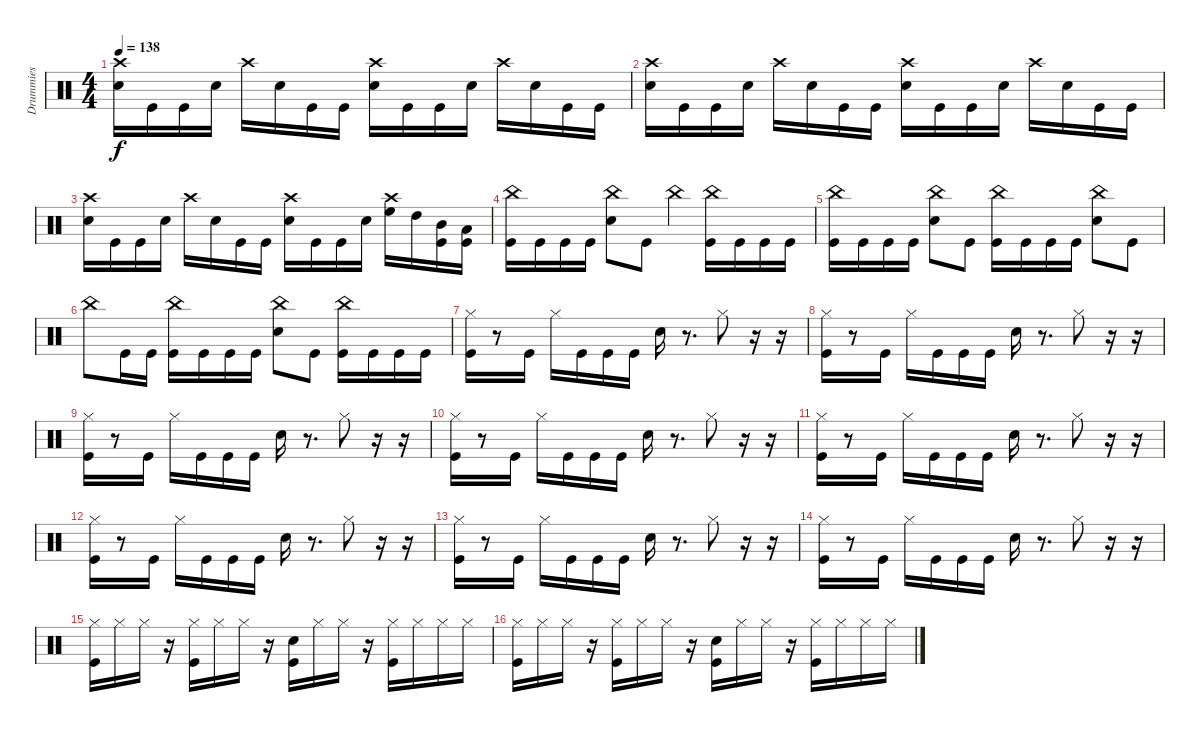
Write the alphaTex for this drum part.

\track ("Drummies" "Drummies") {instrument percussion}
\staff {score}
\articulation defaults
\ts (4 4)
\tempo 138
\clef neutral
\ks c
("Crash high (hit)" "Electric Snare (hit)").16{dy f} "Kick (hit)".16 "Kick (hit)".16 "Electric Snare (hit)".16 "Crash high (hit)".16 "Electric Snare (hit)".16 "Kick (hit)".16 "Kick (hit)".16 ("Crash high (hit)" "Electric Snare (hit)").16 "Kick (hit)".16 "Kick (hit)".16 "Electric Snare (hit)".16 "Crash high (hit)".16 "Electric Snare (hit)".16 "Kick (hit)".16 "Kick (hit)".16 |
("Crash high (hit)" "Electric Snare (hit)").16 "Kick (hit)".16 "Kick (hit)".16 "Electric Snare (hit)".16 "Crash high (hit)".16 "Electric Snare (hit)".16 "Kick (hit)".16 "Kick (hit)".16 ("Crash high (hit)" "Electric Snare (hit)").16 "Kick (hit)".16 "Kick (hit)".16 "Electric Snare (hit)".16 "Crash high (hit)".16 "Electric Snare (hit)".16 "Kick (hit)".16 "Kick (hit)".16 |
("Crash high (hit)" "Electric Snare (hit)").16 "Kick (hit)".16 "Kick (hit)".16 "Electric Snare (hit)".16 "Crash high (hit)".16 "Electric Snare (hit)".16 "Kick (hit)".16 "Kick (hit)".16 ("Crash high (hit)" "Electric Snare (hit)").16 "Kick (hit)".16 "Kick (hit)".16 "Electric Snare (hit)".16 ("Crash high (hit)" "High Floor Tom (hit)").16 "High Tom (hit)".16 ("Mid Tom (hit)" "Kick (hit)").16 ("Low Tom (hit)" "Kick (hit)").16 |
("China (hit)" "Kick (hit)").16 "Kick (hit)".16 "Kick (hit)".16 "Kick (hit)".16 ("China (hit)" "Electric Snare (hit)").8 "Kick (hit)".8 "China (hit)".4 ("China (hit)" "Kick (hit)").16 "Kick (hit)".16 "Kick (hit)".16 "Kick (hit)".16 |
("China (hit)" "Kick (hit)").16 "Kick (hit)".16 "Kick (hit)".16 "Kick (hit)".16 ("China (hit)" "Electric Snare (hit)").8 "Kick (hit)".8 ("China (hit)" "Kick (hit)").16 "Kick (hit)".16 "Kick (hit)".16 "Kick (hit)".16 ("China (hit)" "Electric Snare (hit)").8 "Kick (hit)".8 |
"China (hit)".8 "Kick (hit)".16 "Kick (hit)".16 ("China (hit)" "Kick (hit)").16 "Kick (hit)".16 "Kick (hit)".16 "Kick (hit)".16 ("China (hit)" "Electric Snare (hit)").8 "Kick (hit)".8 ("China (hit)" "Kick (hit)").16 "Kick (hit)".16 "Kick (hit)".16 "Kick (hit)".16 |
("Hi-Hat (closed)" "Kick (hit)").16 r.8 "Kick (hit)".16 "Hi-Hat (closed)".16 "Kick (hit)".16 "Kick (hit)".16 "Kick (hit)".16 "Electric Snare (hit)".16 r.8{d} "Hi-Hat (closed)".8 r.16 r.16 |
("Hi-Hat (closed)" "Kick (hit)").16 r.8 "Kick (hit)".16 "Hi-Hat (closed)".16 "Kick (hit)".16 "Kick (hit)".16 "Kick (hit)".16 "Electric Snare (hit)".16 r.8{d} "Hi-Hat (closed)".8 r.16 r.16 |
("Hi-Hat (closed)" "Kick (hit)").16 r.8 "Kick (hit)".16 "Hi-Hat (closed)".16 "Kick (hit)".16 "Kick (hit)".16 "Kick (hit)".16 "Electric Snare (hit)".16 r.8{d} "Hi-Hat (closed)".8 r.16 r.16 |
("Hi-Hat (closed)" "Kick (hit)").16 r.8 "Kick (hit)".16 "Hi-Hat (closed)".16 "Kick (hit)".16 "Kick (hit)".16 "Kick (hit)".16 "Electric Snare (hit)".16 r.8{d} "Hi-Hat (closed)".8 r.16 r.16 |
("Hi-Hat (closed)" "Kick (hit)").16 r.8 "Kick (hit)".16 "Hi-Hat (closed)".16 "Kick (hit)".16 "Kick (hit)".16 "Kick (hit)".16 "Electric Snare (hit)".16 r.8{d} "Hi-Hat (closed)".8 r.16 r.16 |
("Hi-Hat (closed)" "Kick (hit)").16 r.8 "Kick (hit)".16 "Hi-Hat (closed)".16 "Kick (hit)".16 "Kick (hit)".16 "Kick (hit)".16 "Electric Snare (hit)".16 r.8{d} "Hi-Hat (closed)".8 r.16 r.16 |
("Hi-Hat (closed)" "Kick (hit)").16 r.8 "Kick (hit)".16 "Hi-Hat (closed)".16 "Kick (hit)".16 "Kick (hit)".16 "Kick (hit)".16 "Electric Snare (hit)".16 r.8{d} "Hi-Hat (closed)".8 r.16 r.16 |
("Hi-Hat (closed)" "Kick (hit)").16 r.8 "Kick (hit)".16 "Hi-Hat (closed)".16 "Kick (hit)".16 "Kick (hit)".16 "Kick (hit)".16 "Electric Snare (hit)".16 r.8{d} "Hi-Hat (closed)".8 r.16 r.16 |
("Hi-Hat (closed)" "Kick (hit)").16 "Hi-Hat (closed)".16 "Hi-Hat (closed)".16 r.16 ("Hi-Hat (closed)" "Kick (hit)").16 "Hi-Hat (closed)".16 "Hi-Hat (closed)".16 r.16 ("Electric Snare (hit)" "Kick (hit)").16 "Hi-Hat (closed)".16 "Hi-Hat (closed)".16 r.16 ("Hi-Hat (closed)" "Kick (hit)").16 "Hi-Hat (closed)".16 "Hi-Hat (closed)".16 "Hi-Hat (closed)".16 |
("Hi-Hat (closed)" "Kick (hit)").16 "Hi-Hat (closed)".16 "Hi-Hat (closed)".16 r.16 ("Hi-Hat (closed)" "Kick (hit)").16 "Hi-Hat (closed)".16 "Hi-Hat (closed)".16 r.16 ("Electric Snare (hit)" "Kick (hit)").16 "Hi-Hat (closed)".16 "Hi-Hat (closed)".16 r.16 ("Hi-Hat (closed)" "Kick (hit)").16 "Hi-Hat (closed)".16 "Hi-Hat (closed)".16 "Hi-Hat (closed)".16
